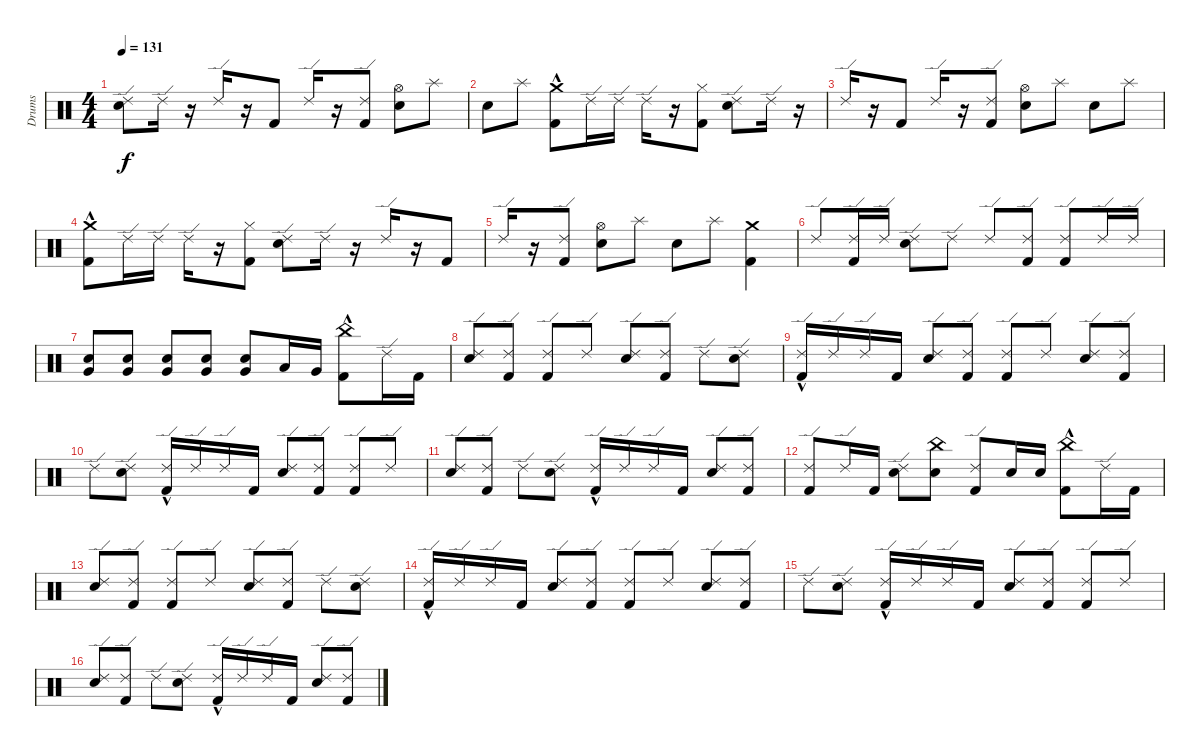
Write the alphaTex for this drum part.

\track ("Drums" "Drums") {instrument percussion}
\staff {score}
\articulation defaults
\ts (4 4)
\tempo 131
\clef neutral
\ks c
("Ride (edge) 2" "Electric Snare (hit)").8{dy f} "Ride (edge) 2".16 r.16 "Ride (edge) 2".16 r.16 "Kick (hit) 2".8 "Ride (edge) 2".16 r.16 ("Ride (edge) 2" "Kick (hit) 2").8 ("Hi-Hat (open)" "Electric Snare (hit)").8 "Splash (hit)".8 |
"Electric Snare (hit)".8 "Splash (hit)".8 ("Crash medium (hit)" "Kick (hit) 2"{hac}).8 "Ride (edge) 2".16 "Ride (edge) 2".16 "Ride (edge) 2".16 r.16 ("Hi-Hat (closed)" "Kick (hit) 2").8 ("Ride (edge) 2" "Electric Snare (hit)").8 "Ride (edge) 2".16 r.16 |
"Ride (edge) 2".16 r.16 "Kick (hit) 2".8 "Ride (edge) 2".16 r.16 ("Ride (edge) 2" "Kick (hit) 2").8 ("Hi-Hat (open)" "Electric Snare (hit)").8 "Splash (hit)".8 "Electric Snare (hit)".8 "Splash (hit)".8 |
("Crash medium (hit)" "Kick (hit) 2"{hac}).8 "Ride (edge) 2".16 "Ride (edge) 2".16 "Ride (edge) 2".16 r.16 ("Hi-Hat (closed)" "Kick (hit) 2").8 ("Ride (edge) 2" "Electric Snare (hit)").8 "Ride (edge) 2".16 r.16 "Ride (edge) 2".16 r.16 "Kick (hit) 2".8 |
"Ride (edge) 2".16 r.16 ("Ride (edge) 2" "Kick (hit) 2").8 ("Hi-Hat (open)" "Electric Snare (hit)").8 "Splash (hit)".8 "Electric Snare (hit)".8 "Splash (hit)".8 ("Crash medium (hit)" "Kick (hit) 2").4 |
"Ride (edge) 2".8 ("Ride (edge) 2" "Kick (hit) 2").16 "Ride (edge) 2".16 ("Ride (edge) 2" "Electric Snare (hit)").8 "Ride (edge) 2".8 "Ride (edge) 2".8 ("Ride (edge) 2" "Kick (hit) 2").8 ("Ride (edge) 2" "Kick (hit) 2").8 "Ride (edge) 2".16 "Ride (edge) 2".16 |
("Very Low Tom (hit)" "Electric Snare (hit)").8{volume 8} ("Electric Snare (hit)" "Very Low Tom (hit)").8{volume 10} ("Very Low Tom (hit)" "Electric Snare (hit)").8{volume 12} ("Electric Snare (hit)" "Very Low Tom (hit)").8{volume 14} ("Electric Snare (hit)" "Very Low Tom (hit)").8{volume 16} "Low Tom (hit)".16 "Very Low Tom (hit)".16 ("Kick (hit) 2"{hac} "China (hit)").8 "Ride (edge) 2".16 "Kick (hit) 2".16 |
("Electric Snare (hit)" "Ride (edge) 2").8 ("Kick (hit) 2" "Ride (edge) 2").8 ("Kick (hit) 2" "Ride (edge) 2").8 "Ride (edge) 2".8 ("Electric Snare (hit)" "Ride (edge) 2").8 ("Kick (hit) 2" "Ride (edge) 2").8 "Ride (edge) 2".8 ("Electric Snare (hit)" "Ride (edge) 2").8 |
("Ride (edge) 2" "Kick (hit) 2"{hac}).16 "Ride (edge) 2".16 "Ride (edge) 2".16 "Kick (hit) 2".16 ("Electric Snare (hit)" "Ride (edge) 2").8 ("Kick (hit) 2" "Ride (edge) 2").8 ("Kick (hit) 2" "Ride (edge) 2").8 "Ride (edge) 2".8 ("Electric Snare (hit)" "Ride (edge) 2").8 ("Kick (hit) 2" "Ride (edge) 2").8 |
"Ride (edge) 2".8 ("Electric Snare (hit)" "Ride (edge) 2").8 ("Ride (edge) 2" "Kick (hit) 2"{hac}).16 "Ride (edge) 2".16 "Ride (edge) 2".16 "Kick (hit) 2".16 ("Electric Snare (hit)" "Ride (edge) 2").8 ("Kick (hit) 2" "Ride (edge) 2").8 ("Kick (hit) 2" "Ride (edge) 2").8 "Ride (edge) 2".8 |
("Electric Snare (hit)" "Ride (edge) 2").8 ("Kick (hit) 2" "Ride (edge) 2").8 "Ride (edge) 2".8 ("Electric Snare (hit)" "Ride (edge) 2").8 ("Ride (edge) 2" "Kick (hit) 2"{hac}).16 "Ride (edge) 2".16 "Ride (edge) 2".16 "Kick (hit) 2".16 ("Electric Snare (hit)" "Ride (edge) 2").8 ("Kick (hit) 2" "Ride (edge) 2").8 |
("Kick (hit) 2" "Ride (edge) 2").8 "Ride (edge) 2".16 "Kick (hit) 2".16 ("Electric Snare (hit)" "Ride (edge) 2").8 ("China (hit)" "Electric Snare (hit)").8 ("Ride (edge) 2" "Kick (hit) 2").8 "Electric Snare (hit)".16 "Electric Snare (hit)".16 ("Kick (hit) 2"{hac} "China (hit)").8 "Ride (edge) 2".16 "Kick (hit) 2".16 |
("Electric Snare (hit)" "Ride (edge) 2").8 ("Kick (hit) 2" "Ride (edge) 2").8 ("Kick (hit) 2" "Ride (edge) 2").8 "Ride (edge) 2".8 ("Electric Snare (hit)" "Ride (edge) 2").8 ("Kick (hit) 2" "Ride (edge) 2").8 "Ride (edge) 2".8 ("Electric Snare (hit)" "Ride (edge) 2").8 |
("Ride (edge) 2" "Kick (hit) 2"{hac}).16 "Ride (edge) 2".16 "Ride (edge) 2".16 "Kick (hit) 2".16 ("Electric Snare (hit)" "Ride (edge) 2").8 ("Kick (hit) 2" "Ride (edge) 2").8 ("Kick (hit) 2" "Ride (edge) 2").8 "Ride (edge) 2".8 ("Electric Snare (hit)" "Ride (edge) 2").8 ("Kick (hit) 2" "Ride (edge) 2").8 |
"Ride (edge) 2".8 ("Electric Snare (hit)" "Ride (edge) 2").8 ("Ride (edge) 2" "Kick (hit) 2"{hac}).16 "Ride (edge) 2".16 "Ride (edge) 2".16 "Kick (hit) 2".16 ("Electric Snare (hit)" "Ride (edge) 2").8 ("Kick (hit) 2" "Ride (edge) 2").8 ("Kick (hit) 2" "Ride (edge) 2").8 "Ride (edge) 2".8 |
("Electric Snare (hit)" "Ride (edge) 2").8 ("Kick (hit) 2" "Ride (edge) 2").8 "Ride (edge) 2".8 ("Electric Snare (hit)" "Ride (edge) 2").8 ("Ride (edge) 2" "Kick (hit) 2"{hac}).16 "Ride (edge) 2".16 "Ride (edge) 2".16 "Kick (hit) 2".16 ("Electric Snare (hit)" "Ride (edge) 2").8 ("Kick (hit) 2" "Ride (edge) 2").8
